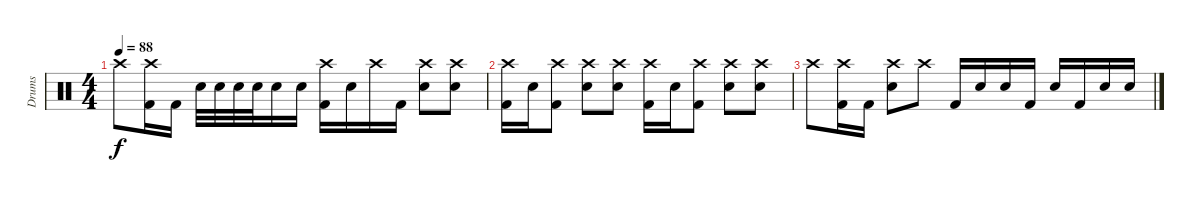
\track ("Drums" "Drums") {instrument percussion}
\staff {score}
\articulation defaults
\ts (4 4)
\tempo 88
\clef neutral
\ks c "Crash high (hit)".8{dy f}
("Crash high (hit)" "Kick (hit) 2").16 "Kick (hit) 2".16 "Electric Snare (hit)".32 "Electric Snare (hit)".32 "Electric Snare (hit)".32 "Electric Snare (hit)".32 "Electric Snare (hit)".16 "Electric Snare (hit)".16 ("Crash high (hit)" "Kick (hit) 2").16 "Electric Snare (hit)".16 "Crash high (hit)".16 "Kick (hit) 2".16 ("Crash high (hit)" "Electric Snare (hit)").8 ("Crash high (hit)" "Electric Snare (hit)").8 |
("Crash high (hit)" "Kick (hit) 2").16 "Electric Snare (hit)".16 ("Crash high (hit)" "Kick (hit) 2").8 ("Crash high (hit)" "Electric Snare (hit)").8 ("Crash high (hit)" "Electric Snare (hit)").8 ("Crash high (hit)" "Kick (hit) 2").16 "Electric Snare (hit)".16 ("Crash high (hit)" "Kick (hit) 2").8 ("Crash high (hit)" "Electric Snare (hit)").8 ("Crash high (hit)" "Electric Snare (hit)").8 |
"Crash high (hit)".8 ("Crash high (hit)" "Kick (hit) 2").16 "Kick (hit) 2".16 ("Crash high (hit)" "Electric Snare (hit)").8 "Crash high (hit)".8 "Kick (hit) 2".16 "Electric Snare (hit)".16 "Electric Snare (hit)".16 "Kick (hit) 2".16 "Electric Snare (hit)".16 "Kick (hit) 2".16 "Electric Snare (hit)".16 "Electric Snare (hit)".16
